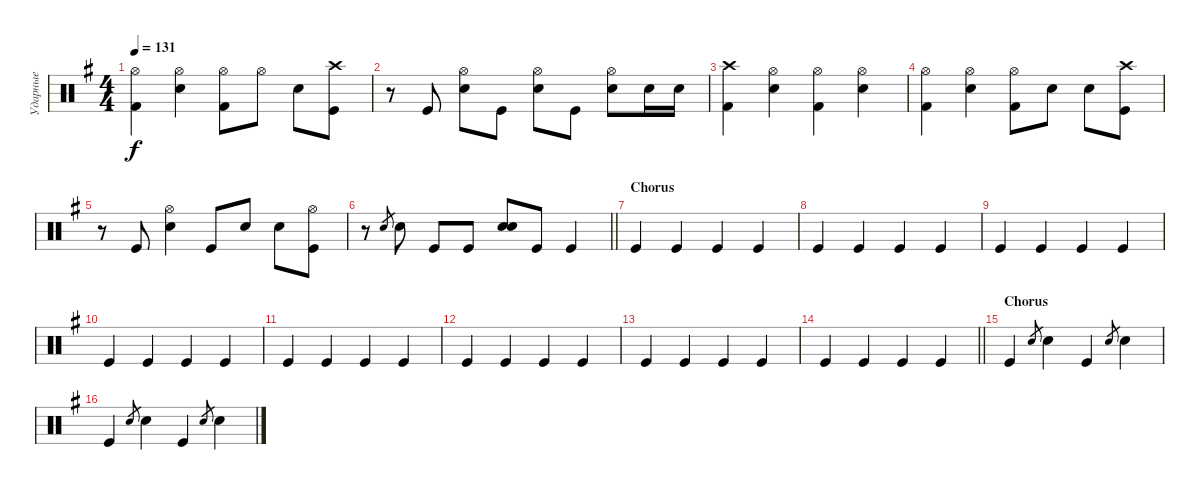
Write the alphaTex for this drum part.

\track ("Ударные" "Ударные") {instrument percussion}
\staff {score}
\articulation defaults
\ts (4 4)
\tempo 131
\clef neutral
\ks eminor
("Hi-Hat (open)" "Kick (hit) 2").4{dy f} ("Hi-Hat (open)" "Snare (hit) 2").4 ("Hi-Hat (open)" "Kick (hit) 2").8 "Hi-Hat (open)".8 "Snare (hit) 2".8 ("Kick (hit)" "Crash high (hit)").8 |
r.8 "Kick (hit)".8 ("Hi-Hat (open)" "Snare (hit) 2").8 "Kick (hit)".8 ("Hi-Hat (open)" "Snare (hit) 2").8 "Kick (hit)".8 ("Hi-Hat (open)" "Snare (hit) 2").8 "Snare (hit) 2".16 "Snare (hit) 2".16 |
("Crash high (hit)" "Kick (hit) 2").4 ("Hi-Hat (open)" "Snare (hit) 2").4 ("Hi-Hat (open)" "Kick (hit) 2").4 ("Hi-Hat (open)" "Snare (hit) 2").4 |
("Hi-Hat (open)" "Kick (hit) 2").4 ("Hi-Hat (open)" "Snare (hit) 2").4 ("Hi-Hat (open)" "Kick (hit) 2").8 "Snare (hit) 2".8 "Snare (hit) 2".8 ("Kick (hit)" "Crash high (hit)").8 |
r.8 "Kick (hit)".8 ("Snare (hit) 2" "Hi-Hat (open)").4 "Kick (hit)".8 "Snare (hit) 2".8 "Snare (hit) 2".8 ("Kick (hit)" "Hi-Hat (open)").8 |
\barLineRight lightlight
r.8 "Snare (hit) 2".8{gr} "Snare (hit) 2".8 "Kick (hit)".8 "Kick (hit)".8 ("Snare (hit) 2" "Snare (hit) 2").8{bd 480} "Kick (hit)".8 "Kick (hit)".4 |
\section ("" "Chorus")
"Kick (hit)".4 "Kick (hit)".4 "Kick (hit)".4 "Kick (hit)".4 |
"Kick (hit)".4 "Kick (hit)".4 "Kick (hit)".4 "Kick (hit)".4 |
"Kick (hit)".4 "Kick (hit)".4 "Kick (hit)".4 "Kick (hit)".4 |
"Kick (hit)".4 "Kick (hit)".4 "Kick (hit)".4 "Kick (hit)".4 |
"Kick (hit)".4 "Kick (hit)".4 "Kick (hit)".4 "Kick (hit)".4 |
"Kick (hit)".4 "Kick (hit)".4 "Kick (hit)".4 "Kick (hit)".4 |
"Kick (hit)".4 "Kick (hit)".4 "Kick (hit)".4 "Kick (hit)".4 |
\barLineRight lightlight "Kick (hit)".4 "Kick (hit)".4 "Kick (hit)".4 "Kick (hit)".4
|
\section ("" "Chorus")
"Kick (hit)".4 "Snare (hit) 2".8{gr} "Snare (hit) 2".4 "Kick (hit)".4 "Snare (hit) 2".8{gr} "Snare (hit) 2".4 |
"Kick (hit)".4 "Snare (hit) 2".8{gr} "Snare (hit) 2".4 "Kick (hit)".4 "Snare (hit) 2".8{gr} "Snare (hit) 2".4
